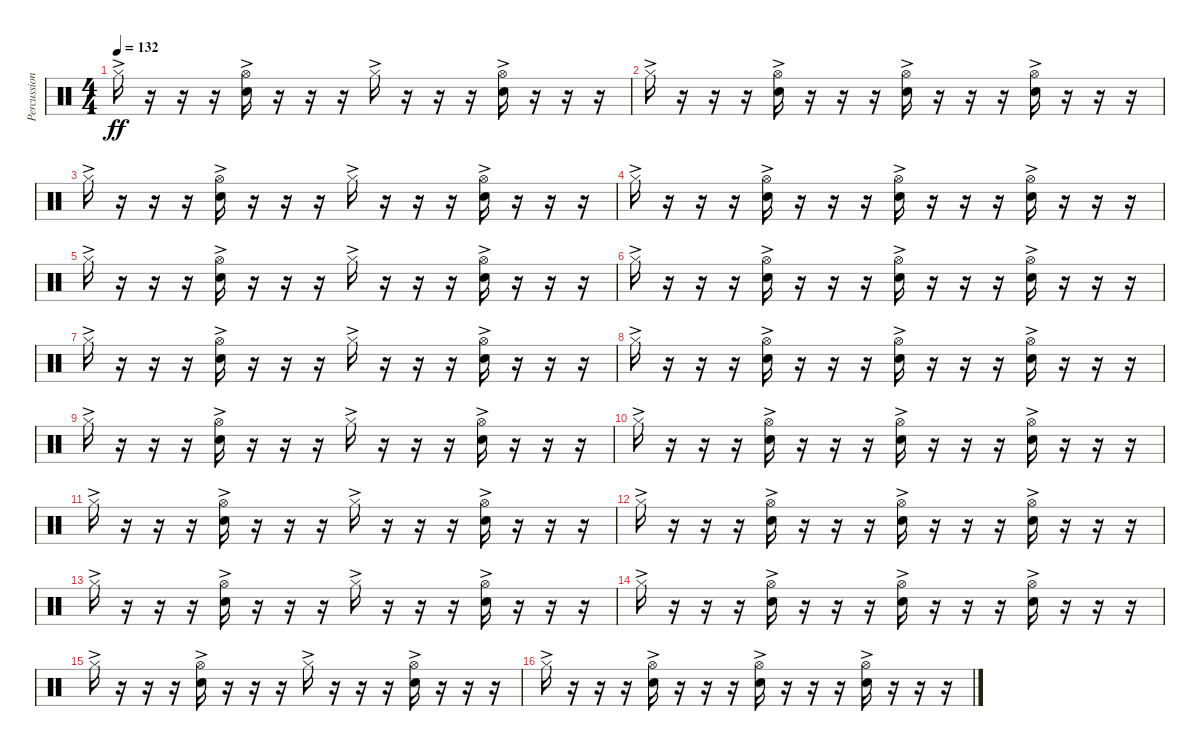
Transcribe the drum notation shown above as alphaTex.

\track ("Percussion" "Percussion") {instrument percussion}
\staff {score}
\articulation defaults
\ts (4 4)
\tempo 132
\clef neutral
\ks c "Hi-Hat (closed)"{ac}.16{dy ff}
r.16 r.16 r.16 ("Hi-Hat (open)"{ac} "Snare (hit) 2"{ac}).16 r.16 r.16 r.16 "Hi-Hat (closed)"{ac}.16 r.16 r.16 r.16 ("Hi-Hat (open)"{ac} "Snare (hit) 2"{ac}).16 r.16 r.16 r.16 |
"Hi-Hat (closed)"{ac}.16 r.16 r.16 r.16 ("Hi-Hat (open)"{ac} "Snare (hit) 2"{ac}).16 r.16 r.16 r.16 ("Hi-Hat (open)"{ac} "Snare (hit) 2"{ac}).16 r.16 r.16 r.16 ("Hi-Hat (open)"{ac} "Snare (hit) 2"{ac}).16 r.16 r.16 r.16 |
"Hi-Hat (closed)"{ac}.16 r.16 r.16 r.16 ("Hi-Hat (open)"{ac} "Snare (hit) 2"{ac}).16 r.16 r.16 r.16 "Hi-Hat (closed)"{ac}.16 r.16 r.16 r.16 ("Hi-Hat (open)"{ac} "Snare (hit) 2"{ac}).16 r.16 r.16 r.16 |
"Hi-Hat (closed)"{ac}.16 r.16 r.16 r.16 ("Hi-Hat (open)"{ac} "Snare (hit) 2"{ac}).16 r.16 r.16 r.16 ("Hi-Hat (open)"{ac} "Snare (hit) 2"{ac}).16 r.16 r.16 r.16 ("Hi-Hat (open)"{ac} "Snare (hit) 2"{ac}).16 r.16 r.16 r.16 |
"Hi-Hat (closed)"{ac}.16 r.16 r.16 r.16 ("Hi-Hat (open)"{ac} "Snare (hit) 2"{ac}).16 r.16 r.16 r.16 "Hi-Hat (closed)"{ac}.16 r.16 r.16 r.16 ("Hi-Hat (open)"{ac} "Snare (hit) 2"{ac}).16 r.16 r.16 r.16 |
"Hi-Hat (closed)"{ac}.16 r.16 r.16 r.16 ("Hi-Hat (open)"{ac} "Snare (hit) 2"{ac}).16 r.16 r.16 r.16 ("Hi-Hat (open)"{ac} "Snare (hit) 2"{ac}).16 r.16 r.16 r.16 ("Hi-Hat (open)"{ac} "Snare (hit) 2"{ac}).16 r.16 r.16 r.16 |
"Hi-Hat (closed)"{ac}.16 r.16 r.16 r.16 ("Hi-Hat (open)"{ac} "Snare (hit) 2"{ac}).16 r.16 r.16 r.16 "Hi-Hat (closed)"{ac}.16 r.16 r.16 r.16 ("Hi-Hat (open)"{ac} "Snare (hit) 2"{ac}).16 r.16 r.16 r.16 |
"Hi-Hat (closed)"{ac}.16 r.16 r.16 r.16 ("Hi-Hat (open)"{ac} "Snare (hit) 2"{ac}).16 r.16 r.16 r.16 ("Hi-Hat (open)"{ac} "Snare (hit) 2"{ac}).16 r.16 r.16 r.16 ("Hi-Hat (open)"{ac} "Snare (hit) 2"{ac}).16 r.16 r.16 r.16 |
"Hi-Hat (closed)"{ac}.16 r.16 r.16 r.16 ("Hi-Hat (open)"{ac} "Snare (hit) 2"{ac}).16 r.16 r.16 r.16 "Hi-Hat (closed)"{ac}.16 r.16 r.16 r.16 ("Hi-Hat (open)"{ac} "Snare (hit) 2"{ac}).16 r.16 r.16 r.16 |
"Hi-Hat (closed)"{ac}.16 r.16 r.16 r.16 ("Hi-Hat (open)"{ac} "Snare (hit) 2"{ac}).16 r.16 r.16 r.16 ("Hi-Hat (open)"{ac} "Snare (hit) 2"{ac}).16 r.16 r.16 r.16 ("Hi-Hat (open)"{ac} "Snare (hit) 2"{ac}).16 r.16 r.16 r.16 |
"Hi-Hat (closed)"{ac}.16 r.16 r.16 r.16 ("Hi-Hat (open)"{ac} "Snare (hit) 2"{ac}).16 r.16 r.16 r.16 "Hi-Hat (closed)"{ac}.16 r.16 r.16 r.16 ("Hi-Hat (open)"{ac} "Snare (hit) 2"{ac}).16 r.16 r.16 r.16 |
"Hi-Hat (closed)"{ac}.16 r.16 r.16 r.16 ("Hi-Hat (open)"{ac} "Snare (hit) 2"{ac}).16 r.16 r.16 r.16 ("Hi-Hat (open)"{ac} "Snare (hit) 2"{ac}).16 r.16 r.16 r.16 ("Hi-Hat (open)"{ac} "Snare (hit) 2"{ac}).16 r.16 r.16 r.16 |
"Hi-Hat (closed)"{ac}.16 r.16 r.16 r.16 ("Hi-Hat (open)"{ac} "Snare (hit) 2"{ac}).16 r.16 r.16 r.16 "Hi-Hat (closed)"{ac}.16 r.16 r.16 r.16 ("Hi-Hat (open)"{ac} "Snare (hit) 2"{ac}).16 r.16 r.16 r.16 |
"Hi-Hat (closed)"{ac}.16 r.16 r.16 r.16 ("Hi-Hat (open)"{ac} "Snare (hit) 2"{ac}).16 r.16 r.16 r.16 ("Hi-Hat (open)"{ac} "Snare (hit) 2"{ac}).16 r.16 r.16 r.16 ("Hi-Hat (open)"{ac} "Snare (hit) 2"{ac}).16 r.16 r.16 r.16 |
"Hi-Hat (closed)"{ac}.16 r.16 r.16 r.16 ("Hi-Hat (open)"{ac} "Snare (hit) 2"{ac}).16 r.16 r.16 r.16 "Hi-Hat (closed)"{ac}.16 r.16 r.16 r.16 ("Hi-Hat (open)"{ac} "Snare (hit) 2"{ac}).16 r.16 r.16 r.16 |
"Hi-Hat (closed)"{ac}.16 r.16 r.16 r.16 ("Hi-Hat (open)"{ac} "Snare (hit) 2"{ac}).16 r.16 r.16 r.16 ("Hi-Hat (open)"{ac} "Snare (hit) 2"{ac}).16 r.16 r.16 r.16 ("Hi-Hat (open)"{ac} "Snare (hit) 2"{ac}).16 r.16 r.16 r.16
